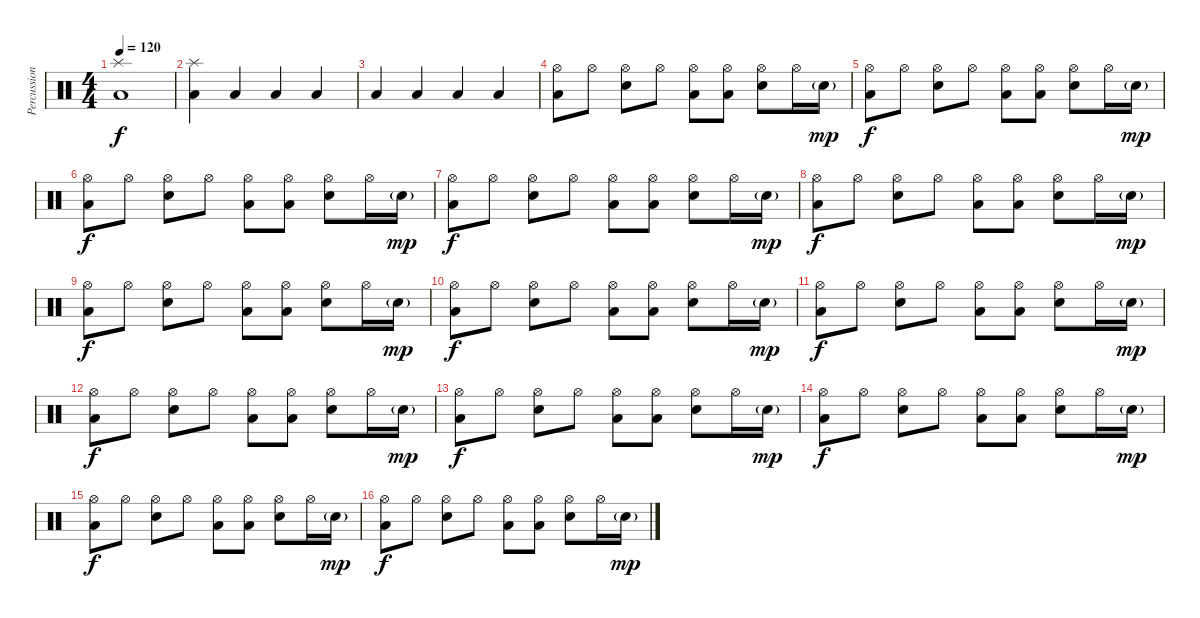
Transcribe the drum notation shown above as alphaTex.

\track ("Percussions" "Percussion") {instrument percussion}
\staff {score}
\articulation defaults
\ts (4 4)
\tempo 120
\clef neutral
\ks c
("Splash (hit)" "Low Tom (hit)").1{dy f} |
("Splash (hit)" "Low Tom (hit)").4 "Low Tom (hit)".4 "Low Tom (hit)".4 "Low Tom (hit)".4 |
"Low Tom (hit)".4 "Low Tom (hit)".4 "Low Tom (hit)".4 "Low Tom (hit)".4 |
("Hi-Hat (open)" "Low Tom (hit)").8 "Hi-Hat (open)".8 ("Hi-Hat (open)" "Electric Snare (hit)").8 "Hi-Hat (open)".8 ("Hi-Hat (open)" "Low Tom (hit)").8 ("Hi-Hat (open)" "Low Tom (hit)").8 ("Hi-Hat (open)" "Electric Snare (hit)").8 "Hi-Hat (open)".16 "Electric Snare (hit)"{g}.16{dy mp} |
("Hi-Hat (open)" "Low Tom (hit)").8{dy f} "Hi-Hat (open)".8 ("Hi-Hat (open)" "Electric Snare (hit)").8 "Hi-Hat (open)".8 ("Hi-Hat (open)" "Low Tom (hit)").8 ("Hi-Hat (open)" "Low Tom (hit)").8 ("Hi-Hat (open)" "Electric Snare (hit)").8 "Hi-Hat (open)".16 "Electric Snare (hit)"{g}.16{dy mp} |
("Hi-Hat (open)" "Low Tom (hit)").8{dy f} "Hi-Hat (open)".8 ("Hi-Hat (open)" "Electric Snare (hit)").8 "Hi-Hat (open)".8 ("Hi-Hat (open)" "Low Tom (hit)").8 ("Hi-Hat (open)" "Low Tom (hit)").8 ("Hi-Hat (open)" "Electric Snare (hit)").8 "Hi-Hat (open)".16 "Electric Snare (hit)"{g}.16{dy mp} |
("Hi-Hat (open)" "Low Tom (hit)").8{dy f} "Hi-Hat (open)".8 ("Hi-Hat (open)" "Electric Snare (hit)").8 "Hi-Hat (open)".8 ("Hi-Hat (open)" "Low Tom (hit)").8 ("Hi-Hat (open)" "Low Tom (hit)").8 ("Hi-Hat (open)" "Electric Snare (hit)").8 "Hi-Hat (open)".16 "Electric Snare (hit)"{g}.16{dy mp} |
("Hi-Hat (open)" "Low Tom (hit)").8{dy f} "Hi-Hat (open)".8 ("Hi-Hat (open)" "Electric Snare (hit)").8 "Hi-Hat (open)".8 ("Hi-Hat (open)" "Low Tom (hit)").8 ("Hi-Hat (open)" "Low Tom (hit)").8 ("Hi-Hat (open)" "Electric Snare (hit)").8 "Hi-Hat (open)".16 "Electric Snare (hit)"{g}.16{dy mp} |
("Hi-Hat (open)" "Low Tom (hit)").8{dy f} "Hi-Hat (open)".8 ("Hi-Hat (open)" "Electric Snare (hit)").8 "Hi-Hat (open)".8 ("Hi-Hat (open)" "Low Tom (hit)").8 ("Hi-Hat (open)" "Low Tom (hit)").8 ("Hi-Hat (open)" "Electric Snare (hit)").8 "Hi-Hat (open)".16 "Electric Snare (hit)"{g}.16{dy mp} |
("Hi-Hat (open)" "Low Tom (hit)").8{dy f} "Hi-Hat (open)".8 ("Hi-Hat (open)" "Electric Snare (hit)").8 "Hi-Hat (open)".8 ("Hi-Hat (open)" "Low Tom (hit)").8 ("Hi-Hat (open)" "Low Tom (hit)").8 ("Hi-Hat (open)" "Electric Snare (hit)").8 "Hi-Hat (open)".16 "Electric Snare (hit)"{g}.16{dy mp} |
("Hi-Hat (open)" "Low Tom (hit)").8{dy f} "Hi-Hat (open)".8 ("Hi-Hat (open)" "Electric Snare (hit)").8 "Hi-Hat (open)".8 ("Hi-Hat (open)" "Low Tom (hit)").8 ("Hi-Hat (open)" "Low Tom (hit)").8 ("Hi-Hat (open)" "Electric Snare (hit)").8 "Hi-Hat (open)".16 "Electric Snare (hit)"{g}.16{dy mp} |
("Hi-Hat (open)" "Low Tom (hit)").8{dy f} "Hi-Hat (open)".8 ("Hi-Hat (open)" "Electric Snare (hit)").8 "Hi-Hat (open)".8 ("Hi-Hat (open)" "Low Tom (hit)").8 ("Hi-Hat (open)" "Low Tom (hit)").8 ("Hi-Hat (open)" "Electric Snare (hit)").8 "Hi-Hat (open)".16 "Electric Snare (hit)"{g}.16{dy mp} |
("Hi-Hat (open)" "Low Tom (hit)").8{dy f} "Hi-Hat (open)".8 ("Hi-Hat (open)" "Electric Snare (hit)").8 "Hi-Hat (open)".8 ("Hi-Hat (open)" "Low Tom (hit)").8 ("Hi-Hat (open)" "Low Tom (hit)").8 ("Hi-Hat (open)" "Electric Snare (hit)").8 "Hi-Hat (open)".16 "Electric Snare (hit)"{g}.16{dy mp} |
("Hi-Hat (open)" "Low Tom (hit)").8{dy f} "Hi-Hat (open)".8 ("Hi-Hat (open)" "Electric Snare (hit)").8 "Hi-Hat (open)".8 ("Hi-Hat (open)" "Low Tom (hit)").8 ("Hi-Hat (open)" "Low Tom (hit)").8 ("Hi-Hat (open)" "Electric Snare (hit)").8 "Hi-Hat (open)".16 "Electric Snare (hit)"{g}.16{dy mp} |
("Hi-Hat (open)" "Low Tom (hit)").8{dy f} "Hi-Hat (open)".8 ("Hi-Hat (open)" "Electric Snare (hit)").8 "Hi-Hat (open)".8 ("Hi-Hat (open)" "Low Tom (hit)").8 ("Hi-Hat (open)" "Low Tom (hit)").8 ("Hi-Hat (open)" "Electric Snare (hit)").8 "Hi-Hat (open)".16 "Electric Snare (hit)"{g}.16{dy mp} |
("Hi-Hat (open)" "Low Tom (hit)").8{dy f} "Hi-Hat (open)".8 ("Hi-Hat (open)" "Electric Snare (hit)").8 "Hi-Hat (open)".8 ("Hi-Hat (open)" "Low Tom (hit)").8 ("Hi-Hat (open)" "Low Tom (hit)").8 ("Hi-Hat (open)" "Electric Snare (hit)").8 "Hi-Hat (open)".16 "Electric Snare (hit)"{g}.16{dy mp}
